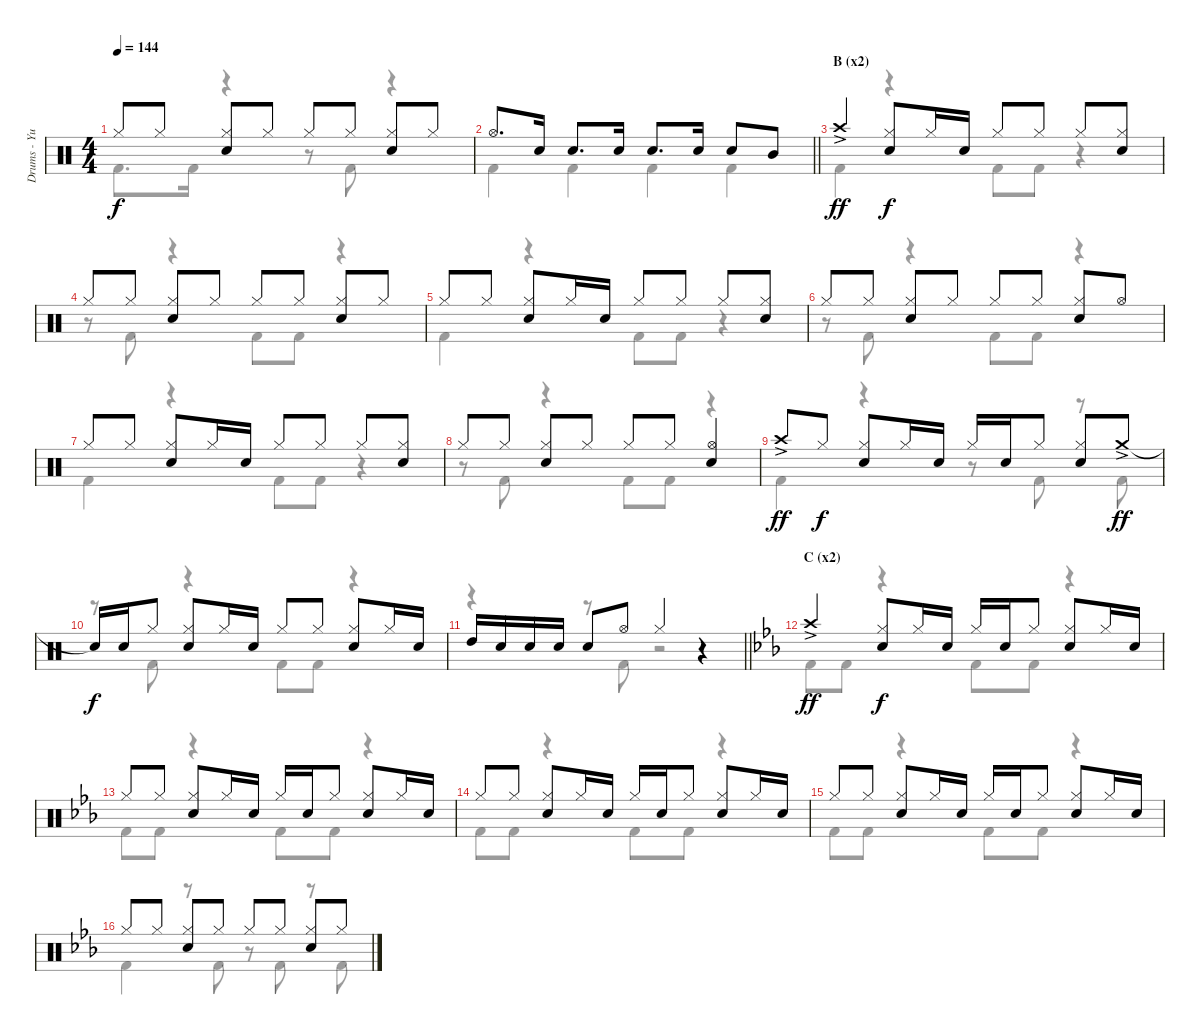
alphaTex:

\track ("Drums - Yuuya" "Drums - Yu") {instrument percussion}
\staff {score}
\articulation defaults
\voice
\ts (4 4)
\tempo 144
\clef neutral
\ks c "Hi-Hat (closed)".8{dy f} "Hi-Hat (closed)".8
("Hi-Hat (closed)" "Snare (hit) 2").8 "Hi-Hat (closed)".8 "Hi-Hat (closed)".8 "Hi-Hat (closed)".8 ("Hi-Hat (closed)" "Snare (hit) 2").8 "Hi-Hat (closed)".8 |
\barLineRight lightlight "Hi-Hat (open)".8{d} "Snare (hit) 2".16 "Snare (hit) 2".8{d} "Snare (hit) 2".16 "Snare (hit) 2".8{d} "Snare (hit) 2".16 "Snare (hit) 2".8 "Mid Tom (hit)".8
|
\section ("" "B (x2)")
"Crash high (hit)"{ac}.4{dy ff} ("Hi-Hat (closed)" "Snare (hit) 2").8{dy f} "Hi-Hat (closed)".16 "Snare (hit) 2".16 "Hi-Hat (closed)".8 "Hi-Hat (closed)".8 "Hi-Hat (closed)".8 ("Hi-Hat (closed)" "Snare (hit) 2").8 |
"Hi-Hat (closed)".8 "Hi-Hat (closed)".8 ("Hi-Hat (closed)" "Snare (hit) 2").8 "Hi-Hat (closed)".8 "Hi-Hat (closed)".8 "Hi-Hat (closed)".8 ("Hi-Hat (closed)" "Snare (hit) 2").8 "Hi-Hat (closed)".8 |
"Hi-Hat (closed)".8 "Hi-Hat (closed)".8 ("Hi-Hat (closed)" "Snare (hit) 2").8 "Hi-Hat (closed)".16 "Snare (hit) 2".16 "Hi-Hat (closed)".8 "Hi-Hat (closed)".8 "Hi-Hat (closed)".8 ("Hi-Hat (closed)" "Snare (hit) 2").8 |
"Hi-Hat (closed)".8 "Hi-Hat (closed)".8 ("Hi-Hat (closed)" "Snare (hit) 2").8 "Hi-Hat (closed)".8 "Hi-Hat (closed)".8 "Hi-Hat (closed)".8 ("Hi-Hat (closed)" "Snare (hit) 2").8 "Hi-Hat (open)".8 |
"Hi-Hat (closed)".8 "Hi-Hat (closed)".8 ("Hi-Hat (closed)" "Snare (hit) 2").8 "Hi-Hat (closed)".16 "Snare (hit) 2".16 "Hi-Hat (closed)".8 "Hi-Hat (closed)".8 "Hi-Hat (closed)".8 ("Hi-Hat (closed)" "Snare (hit) 2").8 |
"Hi-Hat (closed)".8 "Hi-Hat (closed)".8 ("Hi-Hat (closed)" "Snare (hit) 2").8 "Hi-Hat (closed)".8 "Hi-Hat (closed)".8 "Hi-Hat (closed)".8 ("Hi-Hat (open)" "Snare (hit) 2").4 |
"Crash high (hit)"{ac}.8{dy ff} "Hi-Hat (closed)".8{dy f} ("Hi-Hat (closed)" "Snare (hit) 2").8 "Hi-Hat (closed)".16 "Snare (hit) 2".16 "Hi-Hat (closed)".16 "Snare (hit) 2".16 "Hi-Hat (closed)".8 ("Hi-Hat (closed)" "Snare (hit) 2").8 "Crash medium (hit)"{ac}.8{dy ff} |
"Snare (hit)"{t}.16{dy f} "Snare (hit) 2".16 "Hi-Hat (closed)".8 ("Hi-Hat (closed)" "Snare (hit) 2").8 "Hi-Hat (closed)".16 "Snare (hit) 2".16 "Hi-Hat (closed)".8 "Hi-Hat (closed)".8 ("Hi-Hat (closed)" "Snare (hit) 2").8 "Hi-Hat (closed)".16 "Snare (hit) 2".16 |
\barLineRight lightlight "High Tom (hit)".16 "Snare (hit) 2".16 "Snare (hit) 2".16 "Snare (hit) 2".16 "Snare (hit) 2".8 "Hi-Hat (open)".8 "Hi-Hat (closed)".4
r.4 |
\section ("" "C (x2)")
\ks eb "Crash high (hit)"{ac}.4{dy ff}
("Hi-Hat (closed)" "Snare (hit) 2").8{dy f} "Hi-Hat (closed)".16 "Snare (hit) 2".16 "Hi-Hat (closed)".16 "Snare (hit) 2".16 "Hi-Hat (closed)".8 ("Hi-Hat (closed)" "Snare (hit) 2").8 "Hi-Hat (closed)".16 "Snare (hit) 2".16 |
"Hi-Hat (closed)".8 "Hi-Hat (closed)".8 ("Hi-Hat (closed)" "Snare (hit) 2").8 "Hi-Hat (closed)".16 "Snare (hit) 2".16 "Hi-Hat (closed)".16 "Snare (hit) 2".16 "Hi-Hat (closed)".8 ("Hi-Hat (closed)" "Snare (hit) 2").8 "Hi-Hat (closed)".16 "Snare (hit) 2".16 |
"Hi-Hat (closed)".8 "Hi-Hat (closed)".8 ("Hi-Hat (closed)" "Snare (hit) 2").8 "Hi-Hat (closed)".16 "Snare (hit) 2".16 "Hi-Hat (closed)".16 "Snare (hit) 2".16 "Hi-Hat (closed)".8 ("Hi-Hat (closed)" "Snare (hit) 2").8 "Hi-Hat (closed)".16 "Snare (hit) 2".16 |
"Hi-Hat (closed)".8 "Hi-Hat (closed)".8 ("Hi-Hat (closed)" "Snare (hit) 2").8 "Hi-Hat (closed)".16 "Snare (hit) 2".16 "Hi-Hat (closed)".16 "Snare (hit) 2".16 "Hi-Hat (closed)".8 ("Hi-Hat (closed)" "Snare (hit) 2").8 "Hi-Hat (closed)".16 "Snare (hit) 2".16 |
"Hi-Hat (closed)".8 "Hi-Hat (closed)".8 ("Hi-Hat (closed)" "Snare (hit) 2").8 "Hi-Hat (closed)".8 "Hi-Hat (closed)".8 "Hi-Hat (closed)".8 ("Hi-Hat (closed)" "Snare (hit) 2").8 "Hi-Hat (closed)".8
\voice
\clef neutral
\ottava regular
\simile none
\ks c "Kick (hit) 2".8{d dy f} "Kick (hit) 2".16
r.4 r.8 "Kick (hit) 2".8 r.4 |
\barLineRight lightlight "Kick (hit) 2".4 "Kick (hit) 2".4 "Kick (hit) 2".4 "Kick (hit) 2".4
|
"Kick (hit) 2".4 r.4 "Kick (hit) 2".8 "Kick (hit) 2".8 r.4 |
r.8 "Kick (hit) 2".8 r.4 "Kick (hit) 2".8 "Kick (hit) 2".8 r.4 |
"Kick (hit) 2".4 r.4 "Kick (hit) 2".8 "Kick (hit) 2".8 r.4 |
r.8 "Kick (hit) 2".8 r.4 "Kick (hit) 2".8 "Kick (hit) 2".8 r.4 |
"Kick (hit) 2".4 r.4 "Kick (hit) 2".8 "Kick (hit) 2".8 r.4 |
r.8 "Kick (hit) 2".8 r.4 "Kick (hit) 2".8 "Kick (hit) 2".8 r.4 |
"Kick (hit) 2".4 r.4 r.8 "Kick (hit) 2".8 r.8 "Kick (hit) 2".8 |
r.8 "Kick (hit) 2".8 r.4 "Kick (hit) 2".8 "Kick (hit) 2".8 r.4 |
\barLineRight lightlight
r.4 r.8 "Kick (hit) 2".8 r.2 |
\ks eb "Kick (hit) 2".8 "Kick (hit) 2".8
r.4 "Kick (hit) 2".8 "Kick (hit) 2".8 r.4 |
"Kick (hit) 2".8 "Kick (hit) 2".8 r.4 "Kick (hit) 2".8 "Kick (hit) 2".8 r.4 |
"Kick (hit) 2".8 "Kick (hit) 2".8 r.4 "Kick (hit) 2".8 "Kick (hit) 2".8 r.4 |
"Kick (hit) 2".8 "Kick (hit) 2".8 r.4 "Kick (hit) 2".8 "Kick (hit) 2".8 r.4 |
"Kick (hit) 2".4 r.8 "Kick (hit) 2".8 r.8 "Kick (hit) 2".8 r.8 "Kick (hit) 2".8
